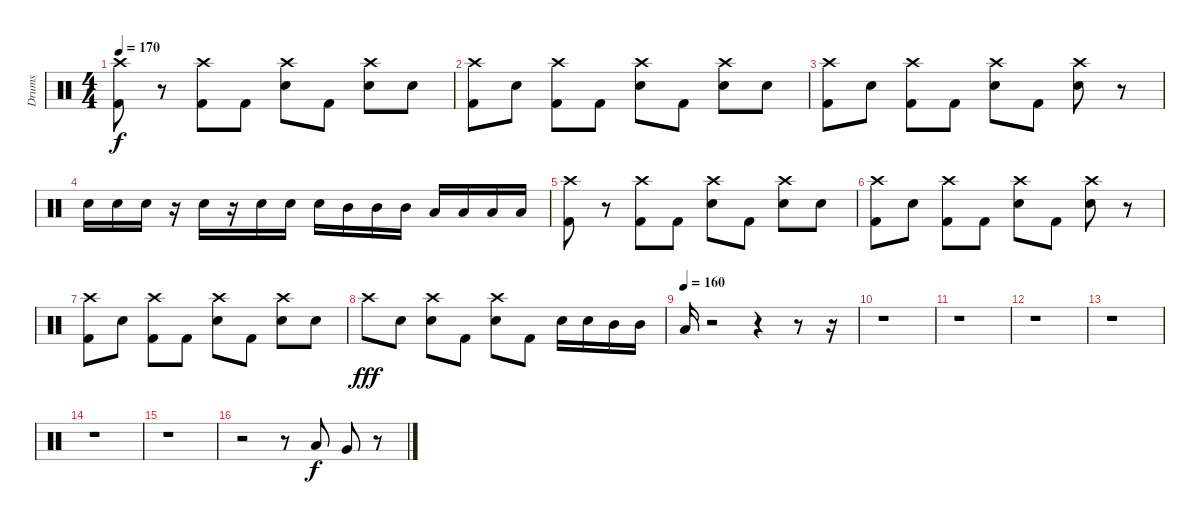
\track ("Drums" "Drums") {instrument percussion}
\staff {score}
\articulation defaults
\ts (4 4)
\tempo 170
\clef neutral
\ks c
("Crash high (hit)" "Kick (hit) 2").8{dy f} r.8 ("Crash high (hit)" "Kick (hit) 2").8 "Kick (hit) 2".8 ("Crash high (hit)" "Snare (hit) 2").8 "Kick (hit) 2".8 ("Crash high (hit)" "Snare (hit) 2").8 "Snare (hit) 2".8 |
("Crash high (hit)" "Kick (hit) 2").8 "Snare (hit) 2".8 ("Crash high (hit)" "Kick (hit) 2").8 "Kick (hit) 2".8 ("Crash high (hit)" "Snare (hit) 2").8 "Kick (hit) 2".8 ("Crash high (hit)" "Snare (hit) 2").8 "Snare (hit) 2".8 |
("Crash high (hit)" "Kick (hit) 2").8 "Snare (hit) 2".8 ("Crash high (hit)" "Kick (hit) 2").8 "Kick (hit) 2".8 ("Crash high (hit)" "Snare (hit) 2").8 "Kick (hit) 2".8 ("Crash high (hit)" "Snare (hit) 2").8 r.8 |
"Snare (hit) 2".16 "Snare (hit) 2".16 "Snare (hit) 2".16 r.16 "Snare (hit) 2".16 r.16 "Snare (hit) 2".16 "Snare (hit) 2".16 "Snare (hit) 2".16 "Mid Tom (hit)".16 "Mid Tom (hit)".16 "Mid Tom (hit)".16 "Low Floor Tom (hit)".16 "Low Floor Tom (hit)".16 "Low Floor Tom (hit)".16 "Low Floor Tom (hit)".16 |
("Crash high (hit)" "Kick (hit) 2").8 r.8 ("Crash high (hit)" "Kick (hit) 2").8 "Kick (hit) 2".8 ("Crash high (hit)" "Snare (hit) 2").8 "Kick (hit) 2".8 ("Crash high (hit)" "Snare (hit) 2").8 "Snare (hit) 2".8 |
("Crash high (hit)" "Kick (hit) 2").8 "Snare (hit) 2".8 ("Crash high (hit)" "Kick (hit) 2").8 "Kick (hit) 2".8 ("Crash high (hit)" "Snare (hit) 2").8 "Kick (hit) 2".8 ("Crash high (hit)" "Snare (hit) 2").8 r.8 |
("Crash high (hit)" "Kick (hit) 2").8 "Snare (hit) 2".8 ("Crash high (hit)" "Kick (hit) 2").8 "Kick (hit) 2".8 ("Crash high (hit)" "Snare (hit) 2").8 "Kick (hit) 2".8 ("Crash high (hit)" "Snare (hit) 2").8 "Snare (hit) 2".8 |
"Crash high (hit)".8{dy fff} "Snare (hit) 2".8 ("Crash high (hit)" "Snare (hit) 2").8 "Kick (hit) 2".8 ("Crash high (hit)" "Snare (hit) 2").8 "Kick (hit) 2".8 "Snare (hit) 2".16 "Snare (hit) 2".16 "Mid Tom (hit)".16 "Mid Tom (hit)".16 |
\tempo (160)
"Low Floor Tom (hit)".16 r.2 r.4 r.8 r.16 |
r.1 |
r.1 |
r.1 |
r.1 |
r.1 |
r.1 |
r.2 r.8 "Low Tom (hit)".8{dy f} "Very Low Tom (hit)".8 r.8
